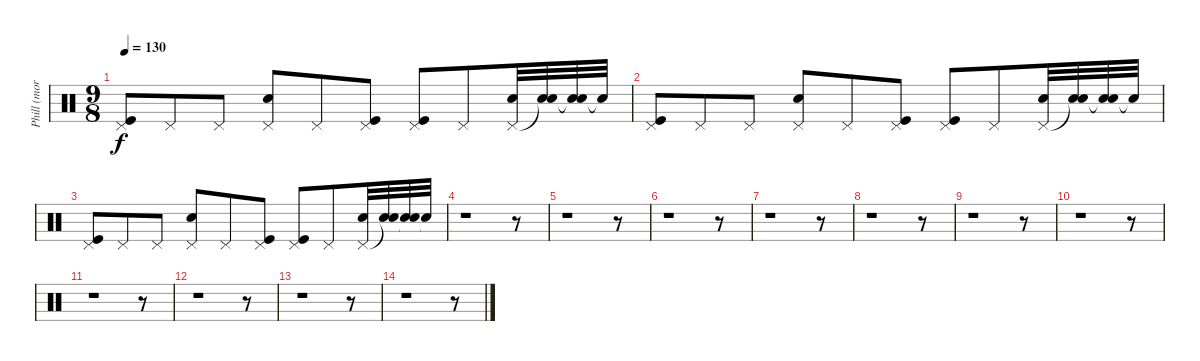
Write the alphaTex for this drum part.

\track ("Phill (mornig bell)" "Phill (mor") {instrument percussion}
\staff {score}
\articulation defaults
\ts (9 8)
\tempo 130
\clef neutral
\ks c
("Pedal Hi-Hat (hit)" "Kick (hit)").8{dy f} "Pedal Hi-Hat (hit)".8 "Pedal Hi-Hat (hit)".8 ("Pedal Hi-Hat (hit)" "Snare (hit) 2").8 "Pedal Hi-Hat (hit)".8 ("Pedal Hi-Hat (hit)" "Kick (hit)").8 ("Pedal Hi-Hat (hit)" "Kick (hit)").8 "Pedal Hi-Hat (hit)".8 ("Pedal Hi-Hat (hit)" "Snare (hit) 2").32 ("Snare (hit)"{t} "Snare (hit) 2").32 ("Snare (hit)"{t} "Snare (hit) 2").32 "Snare (hit)"{t}.32 |
("Pedal Hi-Hat (hit)" "Kick (hit)").8 "Pedal Hi-Hat (hit)".8 "Pedal Hi-Hat (hit)".8 ("Pedal Hi-Hat (hit)" "Snare (hit) 2").8 "Pedal Hi-Hat (hit)".8 ("Pedal Hi-Hat (hit)" "Kick (hit)").8 ("Pedal Hi-Hat (hit)" "Kick (hit)").8 "Pedal Hi-Hat (hit)".8 ("Pedal Hi-Hat (hit)" "Snare (hit) 2").32 ("Snare (hit)"{t} "Snare (hit) 2").32 ("Snare (hit)"{t} "Snare (hit) 2").32 "Snare (hit)"{t}.32 |
("Pedal Hi-Hat (hit)" "Kick (hit)").8 "Pedal Hi-Hat (hit)".8 "Pedal Hi-Hat (hit)".8 ("Pedal Hi-Hat (hit)" "Snare (hit) 2").8 "Pedal Hi-Hat (hit)".8 ("Pedal Hi-Hat (hit)" "Kick (hit)").8 ("Pedal Hi-Hat (hit)" "Kick (hit)").8 "Pedal Hi-Hat (hit)".8 ("Pedal Hi-Hat (hit)" "Snare (hit) 2").32 ("Snare (hit)"{t} "Snare (hit) 2").32 ("Snare (hit)"{t} "Snare (hit) 2").32 "Snare (hit)"{t}.32 |
r.1 r.8 |
r.1 r.8 |
r.1 r.8 |
r.1 r.8 |
r.1 r.8 |
r.1 r.8 |
r.1 r.8 |
r.1 r.8 |
r.1 r.8 |
r.1 r.8 |
r.1 r.8
